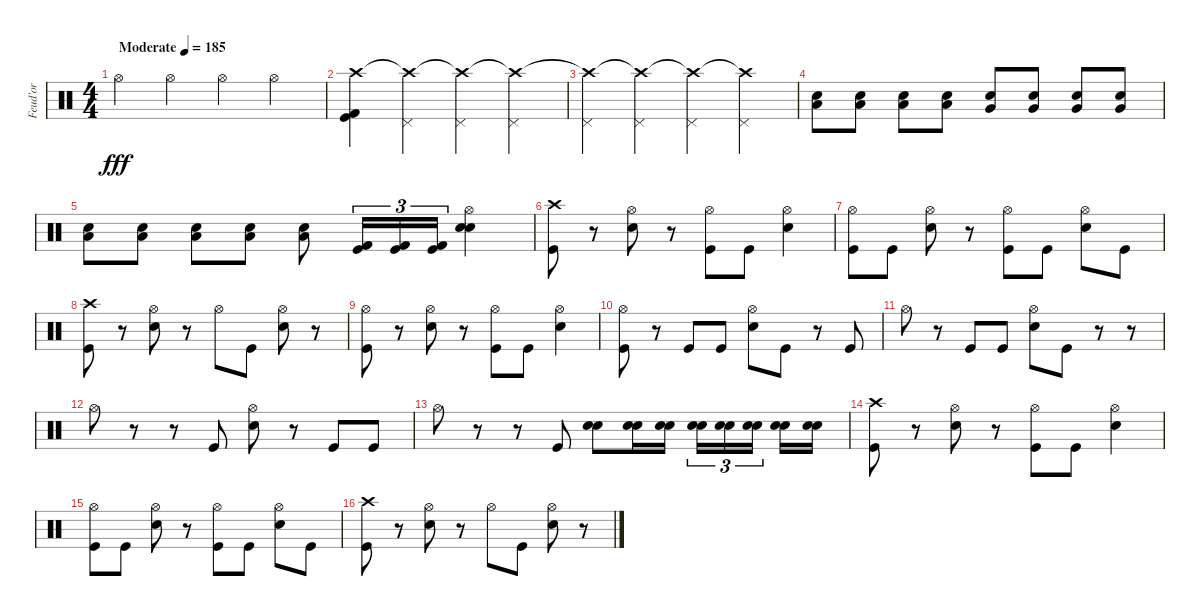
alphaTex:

\track ("Feud'or" "Feud'or") {instrument percussion}
\staff {score}
\articulation defaults
\ts (4 4)
\tempo (185 "Moderate")
\clef neutral
\ks c "Hi-Hat (open)".4{dy fff} "Hi-Hat (open)".4 "Hi-Hat (open)".4 "Hi-Hat (open)".4
|
("Crash high (hit)" "Kick (hit) 2" "Kick (hit)").4 ("Crash high (hit)"{t} "Pedal Hi-Hat (hit)").4 ("Crash high (hit)"{t} "Pedal Hi-Hat (hit)").4 ("Crash high (hit)"{t} "Pedal Hi-Hat (hit)").4 |
("Crash high (hit)"{t} "Pedal Hi-Hat (hit)").4 ("Crash high (hit)"{t} "Pedal Hi-Hat (hit)").4 ("Crash high (hit)"{t} "Pedal Hi-Hat (hit)").4 ("Crash high (hit)"{t} "Pedal Hi-Hat (hit)").4 |
("Low Tom (hit)" "Snare (hit) 2").8{volume 15} ("Low Tom (hit)" "Snare (hit) 2").8 ("Low Tom (hit)" "Snare (hit) 2").8 ("Low Tom (hit)" "Snare (hit) 2").8 ("Very Low Tom (hit)" "Snare (hit) 2").8 ("Very Low Tom (hit)" "Snare (hit) 2").8 ("Very Low Tom (hit)" "Snare (hit) 2").8 ("Very Low Tom (hit)" "Snare (hit) 2").8 |
("Low Floor Tom (hit)" "Snare (hit) 2").8 ("Low Floor Tom (hit)" "Snare (hit) 2").8 ("Low Floor Tom (hit)" "Snare (hit) 2").8 ("Low Floor Tom (hit)" "Snare (hit) 2").8 ("Low Floor Tom (hit)" "Snare (hit) 2").8 ("Kick (hit) 2" "Kick (hit)").16{tu (3 2)} ("Kick (hit) 2" "Kick (hit)").16{tu (3 2)} ("Kick (hit) 2" "Kick (hit)").16{tu (3 2)} ("Hi-Hat (open)" "Electric Snare (hit)" "Snare (hit) 2").4 |
("Crash high (hit)" "Kick (hit)").8 r.8 ("Hi-Hat (open)" "Snare (hit) 2").8 r.8 ("Hi-Hat (open)" "Kick (hit)").8 "Kick (hit)".8 ("Hi-Hat (open)" "Snare (hit) 2").4 |
("Hi-Hat (open)" "Kick (hit)").8 "Kick (hit)".8 ("Hi-Hat (open)" "Snare (hit) 2").8 r.8 ("Hi-Hat (open)" "Kick (hit)").8 "Kick (hit)".8 ("Hi-Hat (open)" "Snare (hit) 2").8 "Kick (hit)".8 |
("Crash high (hit)" "Kick (hit)").8 r.8 ("Hi-Hat (open)" "Snare (hit) 2").8 r.8 "Hi-Hat (open)".8 "Kick (hit)".8 ("Hi-Hat (open)" "Snare (hit) 2").8 r.8 |
("Hi-Hat (open)" "Kick (hit)").8 r.8 ("Hi-Hat (open)" "Snare (hit) 2").8 r.8 ("Hi-Hat (open)" "Kick (hit)").8 "Kick (hit)".8 ("Hi-Hat (open)" "Snare (hit) 2").4 |
("Hi-Hat (open)" "Kick (hit)").8 r.8 "Kick (hit)".8 "Kick (hit)".8 ("Hi-Hat (open)" "Snare (hit) 2").8 "Kick (hit)".8 r.8 "Kick (hit)".8 |
"Hi-Hat (open)".8 r.8 "Kick (hit)".8 "Kick (hit)".8 ("Hi-Hat (open)" "Snare (hit) 2").8 "Kick (hit)".8 r.8 r.8 |
"Hi-Hat (open)".8 r.8 r.8 "Kick (hit)".8 ("Hi-Hat (open)" "Snare (hit) 2").8 r.8 "Kick (hit)".8 "Kick (hit)".8 |
"Hi-Hat (open)".8 r.8 r.8 "Kick (hit)".8 ("Electric Snare (hit)" "Snare (hit) 2").8 ("Electric Snare (hit)" "Snare (hit) 2").16 ("Electric Snare (hit)" "Snare (hit) 2").16 ("Electric Snare (hit)" "Snare (hit) 2").16{tu (3 2)} ("Electric Snare (hit)" "Snare (hit) 2").16{tu (3 2)} ("Electric Snare (hit)" "Snare (hit) 2").16{tu (3 2) beam splitsecondary} ("Electric Snare (hit)" "Snare (hit) 2").16 ("Electric Snare (hit)" "Snare (hit) 2").16 |
("Crash high (hit)" "Kick (hit)").8 r.8 ("Hi-Hat (open)" "Snare (hit) 2").8 r.8 ("Hi-Hat (open)" "Kick (hit)").8 "Kick (hit)".8 ("Hi-Hat (open)" "Snare (hit) 2").4 |
("Hi-Hat (open)" "Kick (hit)").8 "Kick (hit)".8 ("Hi-Hat (open)" "Snare (hit) 2").8 r.8 ("Hi-Hat (open)" "Kick (hit)").8 "Kick (hit)".8 ("Hi-Hat (open)" "Snare (hit) 2").8 "Kick (hit)".8 |
("Crash high (hit)" "Kick (hit)").8 r.8 ("Hi-Hat (open)" "Snare (hit) 2").8 r.8 "Hi-Hat (open)".8 "Kick (hit)".8 ("Hi-Hat (open)" "Snare (hit) 2").8 r.8
